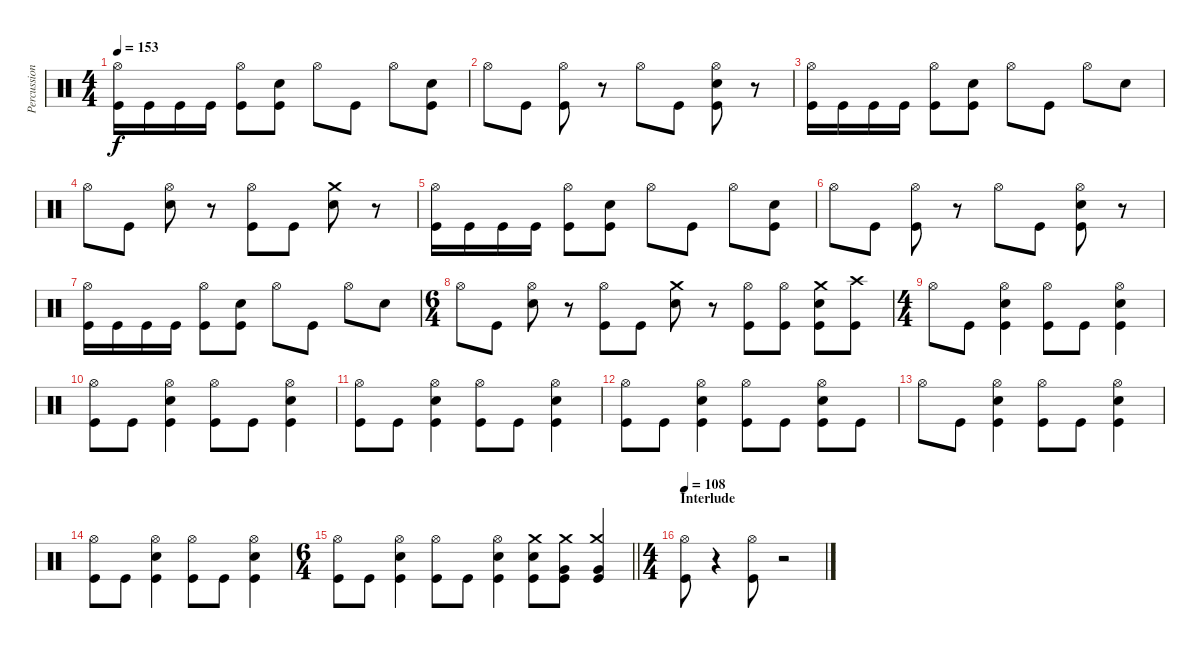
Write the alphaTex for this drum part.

\track ("Percussions" "Percussion") {instrument percussion}
\staff {score}
\articulation defaults
\ts (4 4)
\tempo 153
\clef neutral
\ks c
("Hi-Hat (open)" "Kick (hit)").16{dy f} "Kick (hit)".16 "Kick (hit)".16 "Kick (hit)".16 ("Hi-Hat (open)" "Kick (hit)").8 ("Electric Snare (hit)" "Kick (hit)").8 "Hi-Hat (open)".8 "Kick (hit)".8 "Hi-Hat (open)".8 ("Electric Snare (hit)" "Kick (hit)").8 |
"Hi-Hat (open)".8 "Kick (hit)".8 ("Hi-Hat (open)" "Kick (hit)").8 r.8 "Hi-Hat (open)".8 "Kick (hit)".8 ("Hi-Hat (open)" "Electric Snare (hit)" "Kick (hit)").8 r.8 |
("Hi-Hat (open)" "Kick (hit)").16 "Kick (hit)".16 "Kick (hit)".16 "Kick (hit)".16 ("Hi-Hat (open)" "Kick (hit)").8 ("Electric Snare (hit)" "Kick (hit)").8 "Hi-Hat (open)".8 "Kick (hit)".8 "Hi-Hat (open)".8 "Electric Snare (hit)".8 |
"Hi-Hat (open)".8 "Kick (hit)".8 ("Hi-Hat (open)" "Electric Snare (hit)").8 r.8 ("Hi-Hat (open)" "Kick (hit)").8 "Kick (hit)".8 ("Crash medium (hit)" "Electric Snare (hit)").8 r.8 |
("Hi-Hat (open)" "Kick (hit)").16 "Kick (hit)".16 "Kick (hit)".16 "Kick (hit)".16 ("Hi-Hat (open)" "Kick (hit)").8 ("Electric Snare (hit)" "Kick (hit)").8 "Hi-Hat (open)".8 "Kick (hit)".8 "Hi-Hat (open)".8 ("Electric Snare (hit)" "Kick (hit)").8 |
"Hi-Hat (open)".8 "Kick (hit)".8 ("Hi-Hat (open)" "Kick (hit)").8 r.8 "Hi-Hat (open)".8 "Kick (hit)".8 ("Hi-Hat (open)" "Electric Snare (hit)" "Kick (hit)").8 r.8 |
("Hi-Hat (open)" "Kick (hit)").16 "Kick (hit)".16 "Kick (hit)".16 "Kick (hit)".16 ("Hi-Hat (open)" "Kick (hit)").8 ("Electric Snare (hit)" "Kick (hit)").8 "Hi-Hat (open)".8 "Kick (hit)".8 "Hi-Hat (open)".8 "Electric Snare (hit)".8 |
\ts (6 4)
"Hi-Hat (open)".8 "Kick (hit)".8 ("Hi-Hat (open)" "Electric Snare (hit)").8 r.8 ("Hi-Hat (open)" "Kick (hit)").8 "Kick (hit)".8 ("Crash medium (hit)" "Electric Snare (hit)").8 r.8 ("Hi-Hat (open)" "Kick (hit)").8 ("Hi-Hat (open)" "Kick (hit)").8 ("Crash medium (hit)" "Electric Snare (hit)" "Kick (hit)").8 ("Crash high (hit)" "Kick (hit)").8 |
\ts (4 4)
"Hi-Hat (open)".8 "Kick (hit)".8 ("Hi-Hat (open)" "Electric Snare (hit)" "Kick (hit)").4 ("Hi-Hat (open)" "Kick (hit)").8 "Kick (hit)".8 ("Hi-Hat (open)" "Electric Snare (hit)" "Kick (hit)").4 |
("Hi-Hat (open)" "Kick (hit)").8 "Kick (hit)".8 ("Hi-Hat (open)" "Electric Snare (hit)" "Kick (hit)").4 ("Hi-Hat (open)" "Kick (hit)").8 "Kick (hit)".8 ("Hi-Hat (open)" "Electric Snare (hit)" "Kick (hit)").4 |
("Hi-Hat (open)" "Kick (hit)").8 "Kick (hit)".8 ("Hi-Hat (open)" "Electric Snare (hit)" "Kick (hit)").4 ("Hi-Hat (open)" "Kick (hit)").8 "Kick (hit)".8 ("Hi-Hat (open)" "Electric Snare (hit)" "Kick (hit)").4 |
("Hi-Hat (open)" "Kick (hit)").8 "Kick (hit)".8 ("Hi-Hat (open)" "Electric Snare (hit)" "Kick (hit)").4 ("Hi-Hat (open)" "Kick (hit)").8 "Kick (hit)".8 ("Hi-Hat (open)" "Electric Snare (hit)" "Kick (hit)").8 "Kick (hit)".8 |
"Hi-Hat (open)".8 "Kick (hit)".8 ("Hi-Hat (open)" "Electric Snare (hit)" "Kick (hit)").4 ("Hi-Hat (open)" "Kick (hit)").8 "Kick (hit)".8 ("Hi-Hat (open)" "Electric Snare (hit)" "Kick (hit)").4 |
("Hi-Hat (open)" "Kick (hit)").8 "Kick (hit)".8 ("Hi-Hat (open)" "Electric Snare (hit)" "Kick (hit)").4 ("Hi-Hat (open)" "Kick (hit)").8 "Kick (hit)".8 ("Hi-Hat (open)" "Electric Snare (hit)" "Kick (hit)").4 |
\ts (6 4)
\barLineRight lightlight
("Hi-Hat (open)" "Kick (hit)").8 "Kick (hit)".8 ("Hi-Hat (open)" "Electric Snare (hit)" "Kick (hit)").4 ("Hi-Hat (open)" "Kick (hit)").8 "Kick (hit)".8 ("Hi-Hat (open)" "Electric Snare (hit)" "Kick (hit)").4 ("Crash medium (hit)" "Electric Snare (hit)" "Kick (hit)").8 ("Crash medium (hit)" "Very Low Tom (hit)" "Kick (hit)").8 ("Crash medium (hit)" "Very Low Tom (hit)" "Kick (hit)").4 |
\ts (4 4)
\section ("" "Interlude")
\tempo 108
("Hi-Hat (open)" "Kick (hit)").8 r.4 ("Hi-Hat (open)" "Kick (hit)").8 r.2
